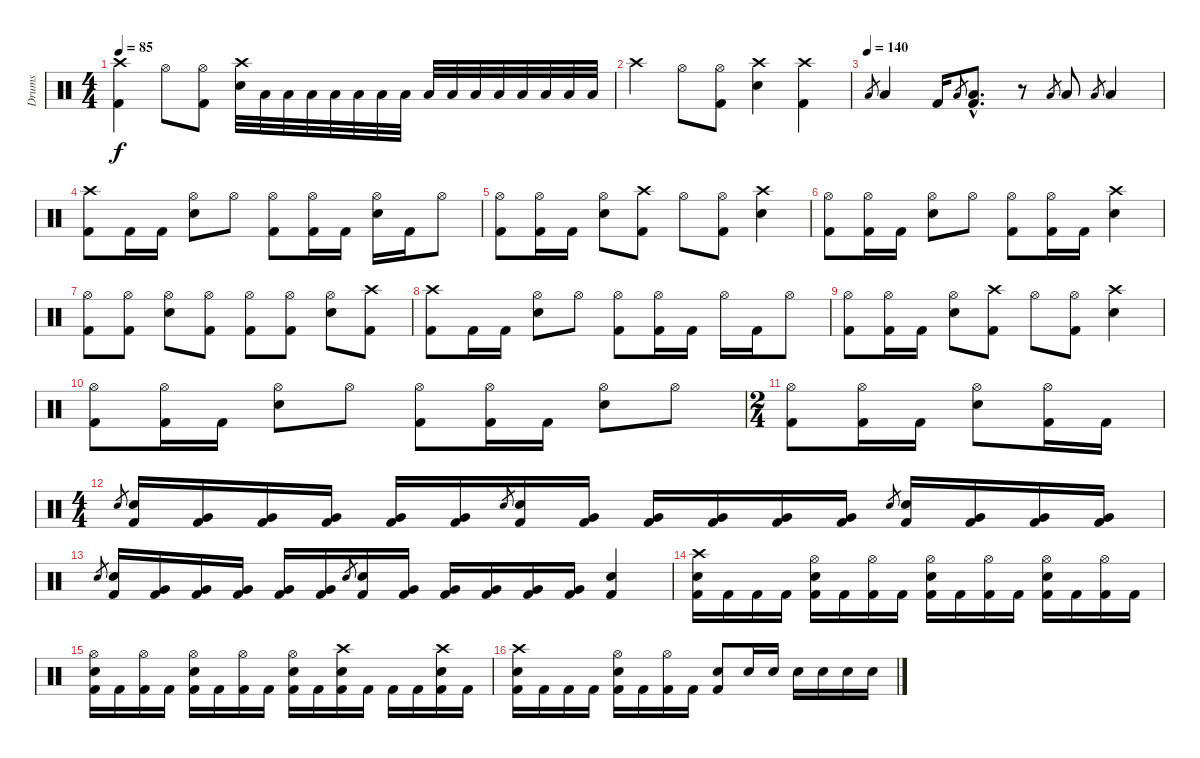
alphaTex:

\track ("Drums" "Drums") {instrument percussion}
\staff {score}
\articulation defaults
\ts (4 4)
\tempo 85
\clef neutral
\ks c
("Crash high (hit)" "Kick (hit) 2").4{dy f} "Hi-Hat (open)".8 ("Hi-Hat (open)" "Kick (hit) 2").8 ("Crash high (hit)" "Electric Snare (hit)").32 "Low Tom (hit)".32 "Low Tom (hit)".32 "Low Tom (hit)".32 "Low Tom (hit)".32 "Low Tom (hit)".32 "Low Tom (hit)".32 "Low Tom (hit)".32 "Low Tom (hit)".32 "Low Tom (hit)".32 "Low Tom (hit)".32 "Low Tom (hit)".32 "Low Tom (hit)".32 "Low Tom (hit)".32 "Low Tom (hit)".32 "Low Tom (hit)".32 |
"Crash high (hit)".4 "Hi-Hat (open)".8 ("Hi-Hat (open)" "Kick (hit) 2").8 ("Crash high (hit)" "Electric Snare (hit)").4 ("Crash high (hit)" "Kick (hit) 2").4 |
\tempo (140)
"Low Tom (hit)".8{gr} "Low Tom (hit)".4 "Kick (hit) 2".16 "Low Tom (hit)".8{gr} ("Low Tom (hit)"{hac} "Kick (hit) 2"{hac}).8{d} r.8 "Low Tom (hit)".8{gr} "Low Tom (hit)".8 "Low Tom (hit)".8{gr} "Low Tom (hit)".4 |
("Crash high (hit)" "Kick (hit) 2").8 "Kick (hit) 2".16 "Kick (hit) 2".16 ("Hi-Hat (open)" "Electric Snare (hit)").8 "Hi-Hat (open)".8 ("Hi-Hat (open)" "Kick (hit) 2").8 ("Hi-Hat (open)" "Kick (hit) 2").16 "Kick (hit) 2".16 ("Hi-Hat (open)" "Electric Snare (hit)").16 "Kick (hit) 2".16 "Hi-Hat (open)".8 |
("Hi-Hat (open)" "Kick (hit) 2").8 ("Hi-Hat (open)" "Kick (hit) 2").16 "Kick (hit) 2".16 ("Hi-Hat (open)" "Electric Snare (hit)").8 ("Crash high (hit)" "Kick (hit) 2").8 "Hi-Hat (open)".8 ("Hi-Hat (open)" "Kick (hit) 2").8 ("Crash high (hit)" "Electric Snare (hit)").4 |
("Hi-Hat (open)" "Kick (hit) 2").8 ("Hi-Hat (open)" "Kick (hit) 2").16 "Kick (hit) 2".16 ("Hi-Hat (open)" "Electric Snare (hit)").8 "Hi-Hat (open)".8 ("Hi-Hat (open)" "Kick (hit) 2").8 ("Hi-Hat (open)" "Kick (hit) 2").16 "Kick (hit) 2".16 ("Crash high (hit)" "Electric Snare (hit)").4 |
("Hi-Hat (open)" "Kick (hit) 2").8 ("Hi-Hat (open)" "Kick (hit) 2").8 ("Hi-Hat (open)" "Electric Snare (hit)").8 ("Hi-Hat (open)" "Kick (hit) 2").8 ("Hi-Hat (open)" "Kick (hit) 2").8 ("Hi-Hat (open)" "Kick (hit) 2").8 ("Hi-Hat (open)" "Electric Snare (hit)").8 ("Crash high (hit)" "Kick (hit) 2").8 |
("Crash high (hit)" "Kick (hit) 2").8 "Kick (hit) 2".16 "Kick (hit) 2".16 ("Hi-Hat (open)" "Electric Snare (hit)").8 "Hi-Hat (open)".8 ("Hi-Hat (open)" "Kick (hit) 2").8 ("Hi-Hat (open)" "Kick (hit) 2").16 "Kick (hit) 2".16 "Hi-Hat (open)".16 "Kick (hit) 2".16 "Hi-Hat (open)".8 |
("Hi-Hat (open)" "Kick (hit) 2").8 ("Hi-Hat (open)" "Kick (hit) 2").16 "Kick (hit) 2".16 ("Hi-Hat (open)" "Electric Snare (hit)").8 ("Crash high (hit)" "Kick (hit) 2").8 "Hi-Hat (open)".8 ("Hi-Hat (open)" "Kick (hit) 2").8 ("Crash high (hit)" "Electric Snare (hit)").4 |
("Hi-Hat (open)" "Kick (hit) 2").8 ("Hi-Hat (open)" "Kick (hit) 2").16 "Kick (hit) 2".16 ("Hi-Hat (open)" "Electric Snare (hit)").8 "Hi-Hat (open)".8 ("Hi-Hat (open)" "Kick (hit) 2").8 ("Hi-Hat (open)" "Kick (hit) 2").16 "Kick (hit) 2".16 ("Hi-Hat (open)" "Electric Snare (hit)").8 "Hi-Hat (open)".8 |
\ts (2 4)
("Hi-Hat (open)" "Kick (hit) 2").8 ("Hi-Hat (open)" "Kick (hit) 2").16 "Kick (hit) 2".16 ("Hi-Hat (open)" "Electric Snare (hit)").8 ("Hi-Hat (open)" "Kick (hit) 2").16 "Kick (hit) 2".16 |
\ts (4 4)
"Electric Snare (hit)".8{gr} ("Electric Snare (hit)" "Kick (hit) 2").16 ("Very Low Tom (hit)" "Kick (hit) 2").16 ("Very Low Tom (hit)" "Kick (hit) 2").16 ("Very Low Tom (hit)" "Kick (hit) 2").16 ("Very Low Tom (hit)" "Kick (hit) 2").16 ("Very Low Tom (hit)" "Kick (hit) 2").16 "Electric Snare (hit)".8{gr} ("Electric Snare (hit)" "Kick (hit) 2").16 ("Very Low Tom (hit)" "Kick (hit) 2").16 ("Very Low Tom (hit)" "Kick (hit) 2").16 ("Very Low Tom (hit)" "Kick (hit) 2").16 ("Very Low Tom (hit)" "Kick (hit) 2").16 ("Very Low Tom (hit)" "Kick (hit) 2").16 "Electric Snare (hit)".8{gr} ("Electric Snare (hit)" "Kick (hit) 2").16 ("Very Low Tom (hit)" "Kick (hit) 2").16 ("Very Low Tom (hit)" "Kick (hit) 2").16 ("Very Low Tom (hit)" "Kick (hit) 2").16 |
"Electric Snare (hit)".8{gr} ("Electric Snare (hit)" "Kick (hit) 2").16 ("Very Low Tom (hit)" "Kick (hit) 2").16 ("Very Low Tom (hit)" "Kick (hit) 2").16 ("Very Low Tom (hit)" "Kick (hit) 2").16 ("Very Low Tom (hit)" "Kick (hit) 2").16 ("Very Low Tom (hit)" "Kick (hit) 2").16 "Electric Snare (hit)".8{gr} ("Electric Snare (hit)" "Kick (hit) 2").16 ("Very Low Tom (hit)" "Kick (hit) 2").16 ("Very Low Tom (hit)" "Kick (hit) 2").16 ("Very Low Tom (hit)" "Kick (hit) 2").16 ("Very Low Tom (hit)" "Kick (hit) 2").16 ("Very Low Tom (hit)" "Kick (hit) 2").16 ("Electric Snare (hit)" "Kick (hit) 2").4 |
("Crash high (hit)" "Electric Snare (hit)" "Kick (hit) 2").16 "Kick (hit) 2".16 "Kick (hit) 2".16 "Kick (hit) 2".16 ("Hi-Hat (open)" "Electric Snare (hit)" "Kick (hit) 2").16 "Kick (hit) 2".16 ("Hi-Hat (open)" "Kick (hit) 2").16 "Kick (hit) 2".16 ("Hi-Hat (open)" "Electric Snare (hit)" "Kick (hit) 2").16 "Kick (hit) 2".16 ("Hi-Hat (open)" "Kick (hit) 2").16 "Kick (hit) 2".16 ("Hi-Hat (open)" "Electric Snare (hit)" "Kick (hit) 2").16 "Kick (hit) 2".16 ("Hi-Hat (open)" "Kick (hit) 2").16 "Kick (hit) 2".16 |
("Hi-Hat (open)" "Electric Snare (hit)" "Kick (hit) 2").16 "Kick (hit) 2".16 ("Hi-Hat (open)" "Kick (hit) 2").16 "Kick (hit) 2".16 ("Hi-Hat (open)" "Electric Snare (hit)" "Kick (hit) 2").16 "Kick (hit) 2".16 ("Hi-Hat (open)" "Kick (hit) 2").16 "Kick (hit) 2".16 ("Hi-Hat (open)" "Electric Snare (hit)" "Kick (hit) 2").16 "Kick (hit) 2".16 ("Crash high (hit)" "Electric Snare (hit)" "Kick (hit) 2").16 "Kick (hit) 2".16 "Kick (hit) 2".16 "Kick (hit) 2".16 ("Crash high (hit)" "Electric Snare (hit)" "Kick (hit) 2").16 "Kick (hit) 2".16 |
("Crash high (hit)" "Electric Snare (hit)" "Kick (hit) 2").16 "Kick (hit) 2".16 "Kick (hit) 2".16 "Kick (hit) 2".16 ("Hi-Hat (open)" "Electric Snare (hit)" "Kick (hit) 2").16 "Kick (hit) 2".16 ("Hi-Hat (open)" "Kick (hit) 2").16 "Kick (hit) 2".16 ("Electric Snare (hit)" "Kick (hit) 2").8 "Electric Snare (hit)".16 "Electric Snare (hit)".16 "Electric Snare (hit)".16 "Electric Snare (hit)".16 "Electric Snare (hit)".16 "Electric Snare (hit)".16
